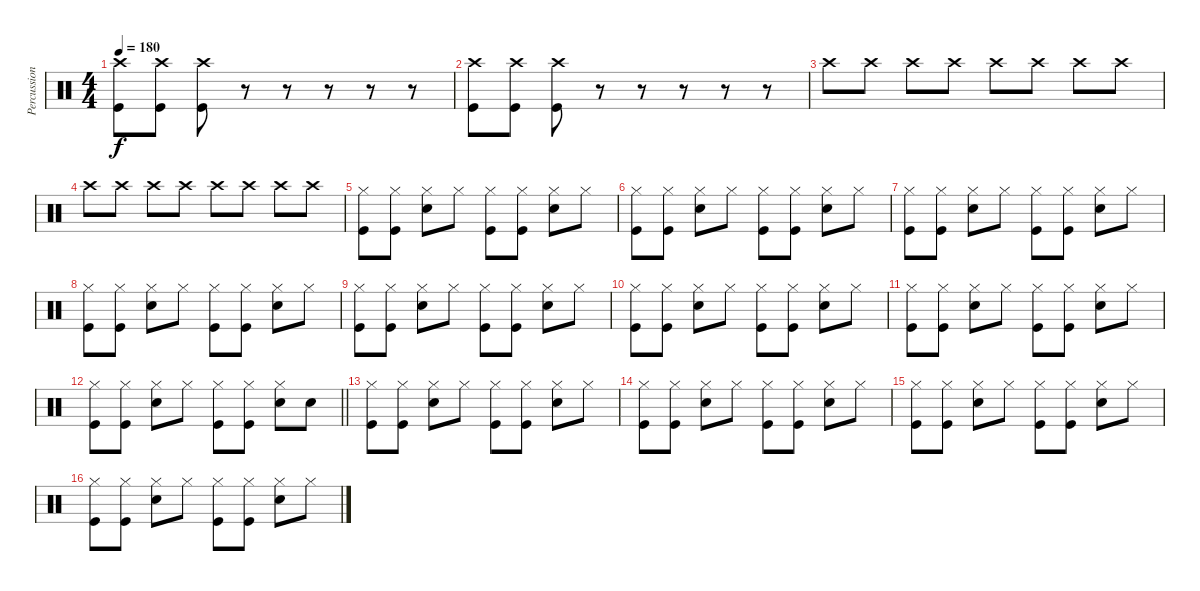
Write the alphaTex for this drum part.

\track ("Percussion" "Percussion") {instrument percussion}
\staff {score}
\articulation defaults
\ts (4 4)
\tempo 180
\clef neutral
\ks c
("Crash high (hit)" "Kick (hit)").8{dy f} ("Crash high (hit)" "Kick (hit)").8 ("Crash high (hit)" "Kick (hit)").8 r.8 r.8 r.8 r.8 r.8 |
("Crash high (hit)" "Kick (hit)").8 ("Crash high (hit)" "Kick (hit)").8 ("Crash high (hit)" "Kick (hit)").8 r.8 r.8 r.8 r.8 r.8 |
"Crash high (hit)".8 "Crash high (hit)".8 "Crash high (hit)".8 "Crash high (hit)".8 "Crash high (hit)".8 "Crash high (hit)".8 "Crash high (hit)".8 "Crash high (hit)".8 |
"Crash high (hit)".8 "Crash high (hit)".8 "Crash high (hit)".8 "Crash high (hit)".8 "Crash high (hit)".8 "Crash high (hit)".8 "Crash high (hit)".8 "Crash high (hit)".8 |
("Hi-Hat (closed)" "Kick (hit)").8 ("Hi-Hat (closed)" "Kick (hit)").8 ("Hi-Hat (closed)" "Snare (hit) 2").8 "Hi-Hat (closed)".8 ("Hi-Hat (closed)" "Kick (hit)").8 ("Hi-Hat (closed)" "Kick (hit)").8 ("Hi-Hat (closed)" "Snare (hit) 2").8 "Hi-Hat (closed)".8 |
("Hi-Hat (closed)" "Kick (hit)").8 ("Hi-Hat (closed)" "Kick (hit)").8 ("Hi-Hat (closed)" "Snare (hit) 2").8 "Hi-Hat (closed)".8 ("Hi-Hat (closed)" "Kick (hit)").8 ("Hi-Hat (closed)" "Kick (hit)").8 ("Hi-Hat (closed)" "Snare (hit) 2").8 "Hi-Hat (closed)".8 |
("Hi-Hat (closed)" "Kick (hit)").8 ("Hi-Hat (closed)" "Kick (hit)").8 ("Hi-Hat (closed)" "Snare (hit) 2").8 "Hi-Hat (closed)".8 ("Hi-Hat (closed)" "Kick (hit)").8 ("Hi-Hat (closed)" "Kick (hit)").8 ("Hi-Hat (closed)" "Snare (hit) 2").8 "Hi-Hat (closed)".8 |
("Hi-Hat (closed)" "Kick (hit)").8 ("Hi-Hat (closed)" "Kick (hit)").8 ("Hi-Hat (closed)" "Snare (hit) 2").8 "Hi-Hat (closed)".8 ("Hi-Hat (closed)" "Kick (hit)").8 ("Hi-Hat (closed)" "Kick (hit)").8 ("Hi-Hat (closed)" "Snare (hit) 2").8 "Hi-Hat (closed)".8 |
("Hi-Hat (closed)" "Kick (hit)").8 ("Hi-Hat (closed)" "Kick (hit)").8 ("Hi-Hat (closed)" "Snare (hit) 2").8 "Hi-Hat (closed)".8 ("Hi-Hat (closed)" "Kick (hit)").8 ("Hi-Hat (closed)" "Kick (hit)").8 ("Hi-Hat (closed)" "Snare (hit) 2").8 "Hi-Hat (closed)".8 |
("Hi-Hat (closed)" "Kick (hit)").8 ("Hi-Hat (closed)" "Kick (hit)").8 ("Hi-Hat (closed)" "Snare (hit) 2").8 "Hi-Hat (closed)".8 ("Hi-Hat (closed)" "Kick (hit)").8 ("Hi-Hat (closed)" "Kick (hit)").8 ("Hi-Hat (closed)" "Snare (hit) 2").8 "Hi-Hat (closed)".8 |
("Hi-Hat (closed)" "Kick (hit)").8 ("Hi-Hat (closed)" "Kick (hit)").8 ("Hi-Hat (closed)" "Snare (hit) 2").8 "Hi-Hat (closed)".8 ("Hi-Hat (closed)" "Kick (hit)").8 ("Hi-Hat (closed)" "Kick (hit)").8 ("Hi-Hat (closed)" "Snare (hit) 2").8 "Hi-Hat (closed)".8 |
\barLineRight lightlight
("Hi-Hat (closed)" "Kick (hit)").8 ("Hi-Hat (closed)" "Kick (hit)").8 ("Hi-Hat (closed)" "Snare (hit) 2").8 "Hi-Hat (closed)".8 ("Hi-Hat (closed)" "Kick (hit)").8 ("Hi-Hat (closed)" "Kick (hit)").8 ("Hi-Hat (closed)" "Snare (hit) 2").8 "Snare (hit)".8 |
("Hi-Hat (closed)" "Kick (hit)").8 ("Hi-Hat (closed)" "Kick (hit)").8 ("Hi-Hat (closed)" "Snare (hit) 2").8 "Hi-Hat (closed)".8 ("Hi-Hat (closed)" "Kick (hit)").8 ("Hi-Hat (closed)" "Kick (hit)").8 ("Hi-Hat (closed)" "Snare (hit) 2").8 "Hi-Hat (closed)".8 |
("Hi-Hat (closed)" "Kick (hit)").8 ("Hi-Hat (closed)" "Kick (hit)").8 ("Hi-Hat (closed)" "Snare (hit) 2").8 "Hi-Hat (closed)".8 ("Hi-Hat (closed)" "Kick (hit)").8 ("Hi-Hat (closed)" "Kick (hit)").8 ("Hi-Hat (closed)" "Snare (hit) 2").8 "Hi-Hat (closed)".8 |
("Hi-Hat (closed)" "Kick (hit)").8 ("Hi-Hat (closed)" "Kick (hit)").8 ("Hi-Hat (closed)" "Snare (hit) 2").8 "Hi-Hat (closed)".8 ("Hi-Hat (closed)" "Kick (hit)").8 ("Hi-Hat (closed)" "Kick (hit)").8 ("Hi-Hat (closed)" "Snare (hit) 2").8 "Hi-Hat (closed)".8 |
("Hi-Hat (closed)" "Kick (hit)").8 ("Hi-Hat (closed)" "Kick (hit)").8 ("Hi-Hat (closed)" "Snare (hit) 2").8 "Hi-Hat (closed)".8 ("Hi-Hat (closed)" "Kick (hit)").8 ("Hi-Hat (closed)" "Kick (hit)").8 ("Hi-Hat (closed)" "Snare (hit) 2").8 "Hi-Hat (closed)".8
